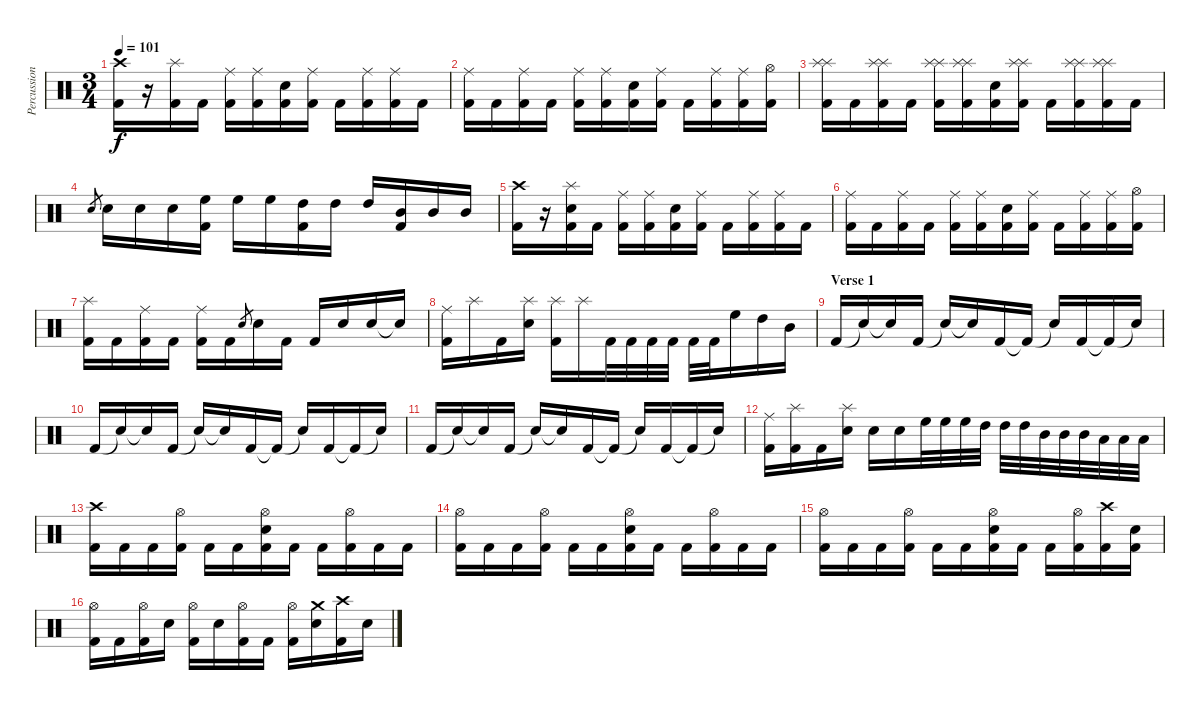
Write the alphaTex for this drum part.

\track ("Percussion" "Percussion") {instrument percussion}
\staff {score}
\articulation defaults
\ts (3 4)
\tempo 101
\clef neutral
\ks c
("Crash high (hit)" "Kick (hit) 2").16{dy f} r.16 ("Splash (hit)" "Kick (hit) 2").16 "Kick (hit) 2".16 ("Ride (middle)" "Kick (hit) 2").16 ("Ride (middle)" "Kick (hit) 2").16 ("Electric Snare (hit)" "Kick (hit) 2").16 ("Ride (middle)" "Kick (hit) 2").16 "Kick (hit) 2".16 ("Ride (middle)" "Kick (hit) 2").16 ("Ride (middle)" "Kick (hit) 2").16 "Kick (hit) 2".16 |
("Ride (middle)" "Kick (hit) 2").16 "Kick (hit) 2".16 ("Ride (middle)" "Kick (hit) 2").16 "Kick (hit) 2".16 ("Ride (middle)" "Kick (hit) 2").16 ("Ride (middle)" "Kick (hit) 2").16 ("Electric Snare (hit)" "Kick (hit) 2").16 ("Ride (middle)" "Kick (hit) 2").16 "Kick (hit) 2".16 ("Ride (middle)" "Kick (hit) 2").16 ("Ride (middle)" "Kick (hit) 2").16 ("Hi-Hat (open)" "Kick (hit) 2").16 |
("Splash (hit)" "Splash (hit)" "Kick (hit) 2").16 "Kick (hit) 2".16 ("Splash (hit)" "Splash (hit)" "Kick (hit) 2").16 "Kick (hit) 2".16 ("Splash (hit)" "Splash (hit)" "Kick (hit) 2").16 ("Splash (hit)" "Splash (hit)" "Kick (hit) 2").16 ("Electric Snare (hit)" "Kick (hit) 2").16 ("Splash (hit)" "Splash (hit)" "Kick (hit) 2").16 "Kick (hit) 2".16 ("Splash (hit)" "Splash (hit)" "Kick (hit) 2").16 ("Splash (hit)" "Splash (hit)" "Kick (hit) 2").16 "Kick (hit) 2".16 |
"Electric Snare (hit)".8{gr} "Electric Snare (hit)".16 "Electric Snare (hit)".16 "Electric Snare (hit)".16 ("Kick (hit) 2" "High Floor Tom (hit)").16 "High Floor Tom (hit)".16 "High Floor Tom (hit)".16 ("Kick (hit) 2" "High Tom (hit)").16 "High Tom (hit)".16 "High Tom (hit)".16 ("Kick (hit) 2" "Mid Tom (hit)").16 "Mid Tom (hit)".16 "Mid Tom (hit)".16 |
("Crash high (hit)" "Kick (hit) 2").16 r.16 ("Splash (hit)" "Electric Snare (hit)" "Kick (hit) 2").16 "Kick (hit) 2".16 ("Ride (middle)" "Kick (hit) 2").16 ("Ride (middle)" "Kick (hit) 2").16 ("Electric Snare (hit)" "Kick (hit) 2").16 ("Ride (middle)" "Kick (hit) 2").16 "Kick (hit) 2".16 ("Ride (middle)" "Kick (hit) 2").16 ("Ride (middle)" "Kick (hit) 2").16 "Kick (hit) 2".16 |
("Ride (middle)" "Kick (hit) 2").16 "Kick (hit) 2".16 ("Ride (middle)" "Kick (hit) 2").16 "Kick (hit) 2".16 ("Ride (middle)" "Kick (hit) 2").16 ("Ride (middle)" "Kick (hit) 2").16 ("Electric Snare (hit)" "Kick (hit) 2").16 ("Ride (middle)" "Kick (hit) 2").16 "Kick (hit) 2".16 ("Ride (middle)" "Kick (hit) 2").16 ("Ride (middle)" "Kick (hit) 2").16 ("Hi-Hat (open)" "Kick (hit) 2").16 |
("Splash (hit)" "Kick (hit) 2").16 "Kick (hit) 2".16 ("Ride (middle)" "Kick (hit) 2").16 "Kick (hit) 2".16 ("Ride (middle)" "Kick (hit) 2").16 "Kick (hit) 2".16 "Electric Snare (hit)".8{gr} "Electric Snare (hit)".16 "Kick (hit) 2".16 "Kick (hit) 2".16 "Electric Snare (hit)".16 "Electric Snare (hit)".16 "Snare (hit)"{t}.16 |
("Ride (middle)" "Kick (hit) 2").16 "Splash (hit)".16 "Kick (hit) 2".16 ("Splash (hit)" "Electric Snare (hit)").16 ("Splash (hit)" "Kick (hit) 2").16 "Splash (hit)".16 "Kick (hit) 2".32 "Kick (hit) 2".32 "Kick (hit) 2".32 "Kick (hit) 2".32 "Kick (hit) 2".32 "Kick (hit) 2".32 "High Floor Tom (hit)".16 "High Tom (hit)".16 "Mid Tom (hit)".16 |
\section ("" "Verse 1")
"Kick (hit) 2".16 "Snare (hit)"{t}.16 "Snare (hit)"{t}.16 "Kick (hit) 2".16 "Snare (hit)"{t}.16 "Snare (hit)"{t}.16 "Kick (hit) 2".16 "Kick (hit) 2"{t}.16 "Snare (hit)"{t}.16 "Kick (hit) 2".16 "Kick (hit) 2"{t}.16 "Snare (hit)"{t}.16 |
"Kick (hit) 2".16 "Snare (hit)"{t}.16 "Snare (hit)"{t}.16 "Kick (hit) 2".16 "Snare (hit)"{t}.16 "Snare (hit)"{t}.16 "Kick (hit) 2".16 "Kick (hit) 2"{t}.16 "Snare (hit)"{t}.16 "Kick (hit) 2".16 "Kick (hit) 2"{t}.16 "Snare (hit)"{t}.16 |
"Kick (hit) 2".16 "Snare (hit)"{t}.16 "Snare (hit)"{t}.16 "Kick (hit) 2".16 "Snare (hit)"{t}.16 "Snare (hit)"{t}.16 "Kick (hit) 2".16 "Kick (hit) 2"{t}.16 "Snare (hit)"{t}.16 "Kick (hit) 2".16 "Kick (hit) 2"{t}.16 "Snare (hit)"{t}.16 |
("Ride (middle)" "Kick (hit) 2").16 ("Splash (hit)" "Kick (hit) 2").16 "Kick (hit) 2".16 ("Splash (hit)" "Electric Snare (hit)").16 "Electric Snare (hit)".16 "Electric Snare (hit)".16 "High Floor Tom (hit)".32 "High Floor Tom (hit)".32 "High Floor Tom (hit)".32 "High Tom (hit)".32 "High Tom (hit)".32 "High Tom (hit)".32 "Mid Tom (hit)".32 "Mid Tom (hit)".32 "Mid Tom (hit)".32 "Low Tom (hit)".32 "Low Tom (hit)".32 "Low Tom (hit)".32 |
("Crash high (hit)" "Kick (hit) 2").16 "Kick (hit) 2".16 "Kick (hit) 2".16 ("Hi-Hat (open)" "Kick (hit) 2").16 "Kick (hit) 2".16 "Kick (hit) 2".16 ("Hi-Hat (open)" "Electric Snare (hit)" "Kick (hit) 2").16 "Kick (hit) 2".16 "Kick (hit) 2".16 ("Hi-Hat (open)" "Kick (hit) 2").16 "Kick (hit) 2".16 "Kick (hit) 2".16 |
("Hi-Hat (open)" "Kick (hit) 2").16 "Kick (hit) 2".16 "Kick (hit) 2".16 ("Hi-Hat (open)" "Kick (hit) 2").16 "Kick (hit) 2".16 "Kick (hit) 2".16 ("Hi-Hat (open)" "Electric Snare (hit)" "Kick (hit) 2").16 "Kick (hit) 2".16 "Kick (hit) 2".16 ("Hi-Hat (open)" "Kick (hit) 2").16 "Kick (hit) 2".16 "Kick (hit) 2".16 |
("Hi-Hat (open)" "Kick (hit) 2").16 "Kick (hit) 2".16 "Kick (hit) 2".16 ("Hi-Hat (open)" "Kick (hit) 2").16 "Kick (hit) 2".16 "Kick (hit) 2".16 ("Hi-Hat (open)" "Electric Snare (hit)" "Kick (hit) 2").16 "Kick (hit) 2".16 "Kick (hit) 2".16 ("Hi-Hat (open)" "Kick (hit) 2").16 ("Crash high (hit)" "Kick (hit) 2").16 ("Electric Snare (hit)" "Kick (hit) 2").16 |
("Hi-Hat (open)" "Kick (hit) 2").16 "Kick (hit) 2".16 ("Hi-Hat (open)" "Kick (hit) 2").16 "Electric Snare (hit)".16 ("Hi-Hat (open)" "Kick (hit) 2").16 "Electric Snare (hit)".16 ("Hi-Hat (open)" "Kick (hit) 2").16 "Kick (hit) 2".16 ("Hi-Hat (open)" "Kick (hit) 2").16 ("Crash medium (hit)" "Electric Snare (hit)").16 ("Crash high (hit)" "Kick (hit) 2").16 "Electric Snare (hit)".16
